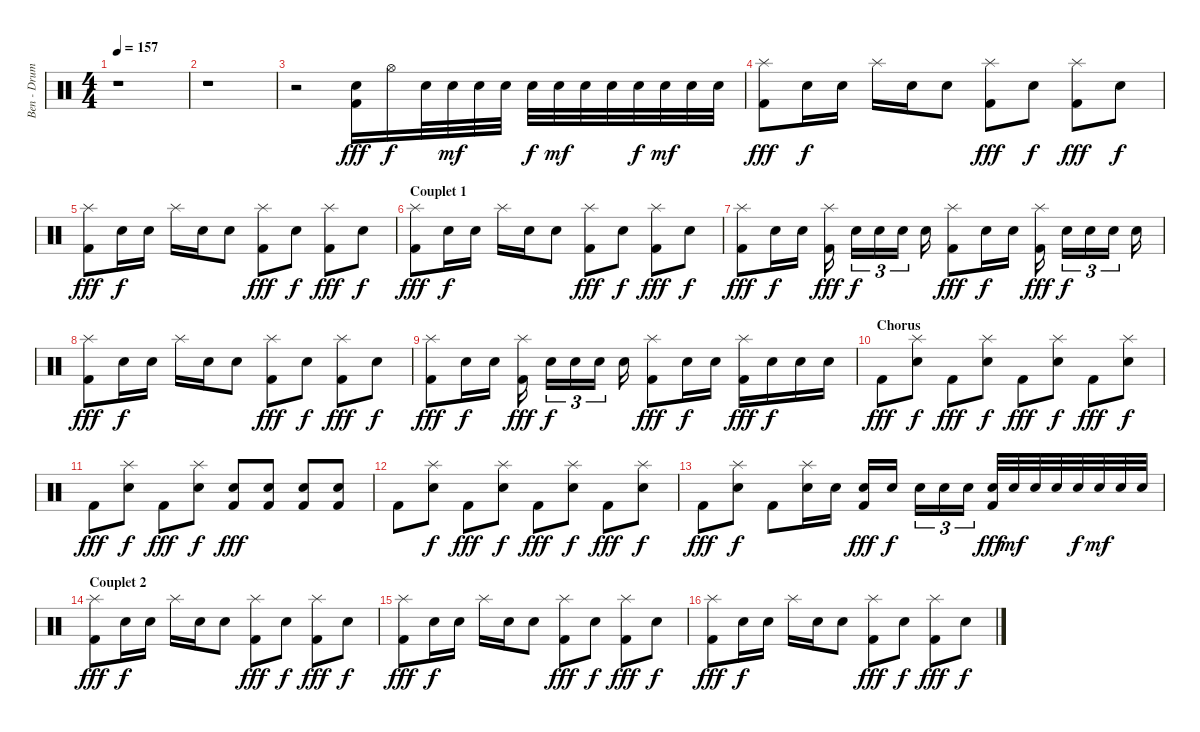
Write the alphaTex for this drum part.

\track ("Ben - Drums" "Ben - Drum") {instrument percussion}
\staff {score}
\articulation defaults
\ts (4 4)
\tempo 157
\clef neutral
\ks c
r.1{dy fff} |
r.1 |
r.2 ("Electric Snare (hit)" "Kick (hit) 2").16 "Hi-Hat (open)".16{dy f} "Electric Snare (hit)".32 "Electric Snare (hit)".32{dy mf} "Electric Snare (hit)".32 "Electric Snare (hit)".32 "Electric Snare (hit)".32{dy f} "Electric Snare (hit)".32{dy mf} "Electric Snare (hit)".32 "Electric Snare (hit)".32 "Electric Snare (hit)".32{dy f} "Electric Snare (hit)".32{dy mf} "Electric Snare (hit)".32 "Electric Snare (hit)".32 |
("Splash (hit)" "Kick (hit) 2").8{dy fff} "Electric Snare (hit)".16{dy f} "Electric Snare (hit)".16 "Splash (hit)".16 "Electric Snare (hit)".16 "Electric Snare (hit)".8 ("Splash (hit)" "Kick (hit) 2").8{dy fff} "Electric Snare (hit)".8{dy f} ("Splash (hit)" "Kick (hit) 2").8{dy fff} "Electric Snare (hit)".8{dy f} |
("Splash (hit)" "Kick (hit) 2").8{dy fff} "Electric Snare (hit)".16{dy f} "Electric Snare (hit)".16 "Splash (hit)".16 "Electric Snare (hit)".16 "Electric Snare (hit)".8 ("Splash (hit)" "Kick (hit) 2").8{dy fff} "Electric Snare (hit)".8{dy f} ("Splash (hit)" "Kick (hit) 2").8{dy fff} "Electric Snare (hit)".8{dy f} |
\section ("" "Couplet 1")
("Splash (hit)" "Kick (hit) 2").8{dy fff} "Electric Snare (hit)".16{dy f} "Electric Snare (hit)".16 "Splash (hit)".16 "Electric Snare (hit)".16 "Electric Snare (hit)".8 ("Splash (hit)" "Kick (hit) 2").8{dy fff} "Electric Snare (hit)".8{dy f} ("Splash (hit)" "Kick (hit) 2").8{dy fff} "Electric Snare (hit)".8{dy f} |
("Splash (hit)" "Kick (hit) 2").8{dy fff} "Electric Snare (hit)".16{dy f} "Electric Snare (hit)".16 ("Splash (hit)" "Kick (hit) 2").16{dy fff} "Electric Snare (hit)".16{tu (3 2) dy f} "Electric Snare (hit)".16{tu (3 2)} "Electric Snare (hit)".16{tu (3 2)} "Electric Snare (hit)".16 ("Splash (hit)" "Kick (hit) 2").8{dy fff} "Electric Snare (hit)".16{dy f} "Electric Snare (hit)".16 ("Splash (hit)" "Kick (hit) 2").16{dy fff} "Electric Snare (hit)".16{tu (3 2) dy f} "Electric Snare (hit)".16{tu (3 2)} "Electric Snare (hit)".16{tu (3 2)} "Electric Snare (hit)".16 |
("Splash (hit)" "Kick (hit) 2").8{dy fff} "Electric Snare (hit)".16{dy f} "Electric Snare (hit)".16 "Splash (hit)".16 "Electric Snare (hit)".16 "Electric Snare (hit)".8 ("Splash (hit)" "Kick (hit) 2").8{dy fff} "Electric Snare (hit)".8{dy f} ("Splash (hit)" "Kick (hit) 2").8{dy fff} "Electric Snare (hit)".8{dy f} |
("Splash (hit)" "Kick (hit) 2").8{dy fff} "Electric Snare (hit)".16{dy f} "Electric Snare (hit)".16 ("Splash (hit)" "Kick (hit) 2").16{dy fff} "Electric Snare (hit)".16{tu (3 2) dy f} "Electric Snare (hit)".16{tu (3 2)} "Electric Snare (hit)".16{tu (3 2)} "Electric Snare (hit)".16 ("Splash (hit)" "Kick (hit) 2").8{dy fff} "Electric Snare (hit)".16{dy f} "Electric Snare (hit)".16 ("Splash (hit)" "Kick (hit) 2").16{dy fff} "Electric Snare (hit)".16{dy f} "Electric Snare (hit)".16 "Electric Snare (hit)".16 |
\section ("" "Chorus")
"Kick (hit) 2".8{dy fff} ("Splash (hit)" "Electric Snare (hit)").8{dy f} "Kick (hit) 2".8{dy fff} ("Splash (hit)" "Electric Snare (hit)").8{dy f} "Kick (hit) 2".8{dy fff} ("Splash (hit)" "Electric Snare (hit)").8{dy f} "Kick (hit) 2".8{dy fff} ("Splash (hit)" "Electric Snare (hit)").8{dy f} |
"Kick (hit) 2".8{dy fff} ("Splash (hit)" "Electric Snare (hit)").8{dy f} "Kick (hit) 2".8{dy fff} ("Splash (hit)" "Electric Snare (hit)").8{dy f} ("Electric Snare (hit)" "Kick (hit) 2").8{dy fff} ("Electric Snare (hit)" "Kick (hit) 2").8 ("Electric Snare (hit)" "Kick (hit) 2").8 ("Electric Snare (hit)" "Kick (hit) 2").8 |
"Kick (hit) 2".8 ("Splash (hit)" "Electric Snare (hit)").8{dy f} "Kick (hit) 2".8{dy fff} ("Splash (hit)" "Electric Snare (hit)").8{dy f} "Kick (hit) 2".8{dy fff} ("Splash (hit)" "Electric Snare (hit)").8{dy f} "Kick (hit) 2".8{dy fff} ("Splash (hit)" "Electric Snare (hit)").8{dy f} |
"Kick (hit) 2".8{dy fff} ("Splash (hit)" "Electric Snare (hit)").8{dy f} "Kick (hit) 2".8 ("Splash (hit)" "Electric Snare (hit)").16 "Electric Snare (hit)".16 ("Electric Snare (hit)" "Kick (hit) 2").16{dy fff} "Electric Snare (hit)".16{dy f} "Electric Snare (hit)".16{tu (3 2)} "Electric Snare (hit)".16{tu (3 2)} "Electric Snare (hit)".16{tu (3 2)} ("Electric Snare (hit)" "Kick (hit) 2").32{dy fff} "Electric Snare (hit)".32{dy mf} "Electric Snare (hit)".32 "Electric Snare (hit)".32 "Electric Snare (hit)".32{dy f} "Electric Snare (hit)".32{dy mf} "Electric Snare (hit)".32 "Electric Snare (hit)".32 |
\section ("" "Couplet 2")
("Splash (hit)" "Kick (hit) 2").8{dy fff} "Electric Snare (hit)".16{dy f} "Electric Snare (hit)".16 "Splash (hit)".16 "Electric Snare (hit)".16 "Electric Snare (hit)".8 ("Splash (hit)" "Kick (hit) 2").8{dy fff} "Electric Snare (hit)".8{dy f} ("Splash (hit)" "Kick (hit) 2").8{dy fff} "Electric Snare (hit)".8{dy f} |
("Splash (hit)" "Kick (hit) 2").8{dy fff} "Electric Snare (hit)".16{dy f} "Electric Snare (hit)".16 "Splash (hit)".16 "Electric Snare (hit)".16 "Electric Snare (hit)".8 ("Splash (hit)" "Kick (hit) 2").8{dy fff} "Electric Snare (hit)".8{dy f} ("Splash (hit)" "Kick (hit) 2").8{dy fff} "Electric Snare (hit)".8{dy f} |
("Splash (hit)" "Kick (hit) 2").8{dy fff} "Electric Snare (hit)".16{dy f} "Electric Snare (hit)".16 "Splash (hit)".16 "Electric Snare (hit)".16 "Electric Snare (hit)".8 ("Splash (hit)" "Kick (hit) 2").8{dy fff} "Electric Snare (hit)".8{dy f} ("Splash (hit)" "Kick (hit) 2").8{dy fff} "Electric Snare (hit)".8{dy f}
